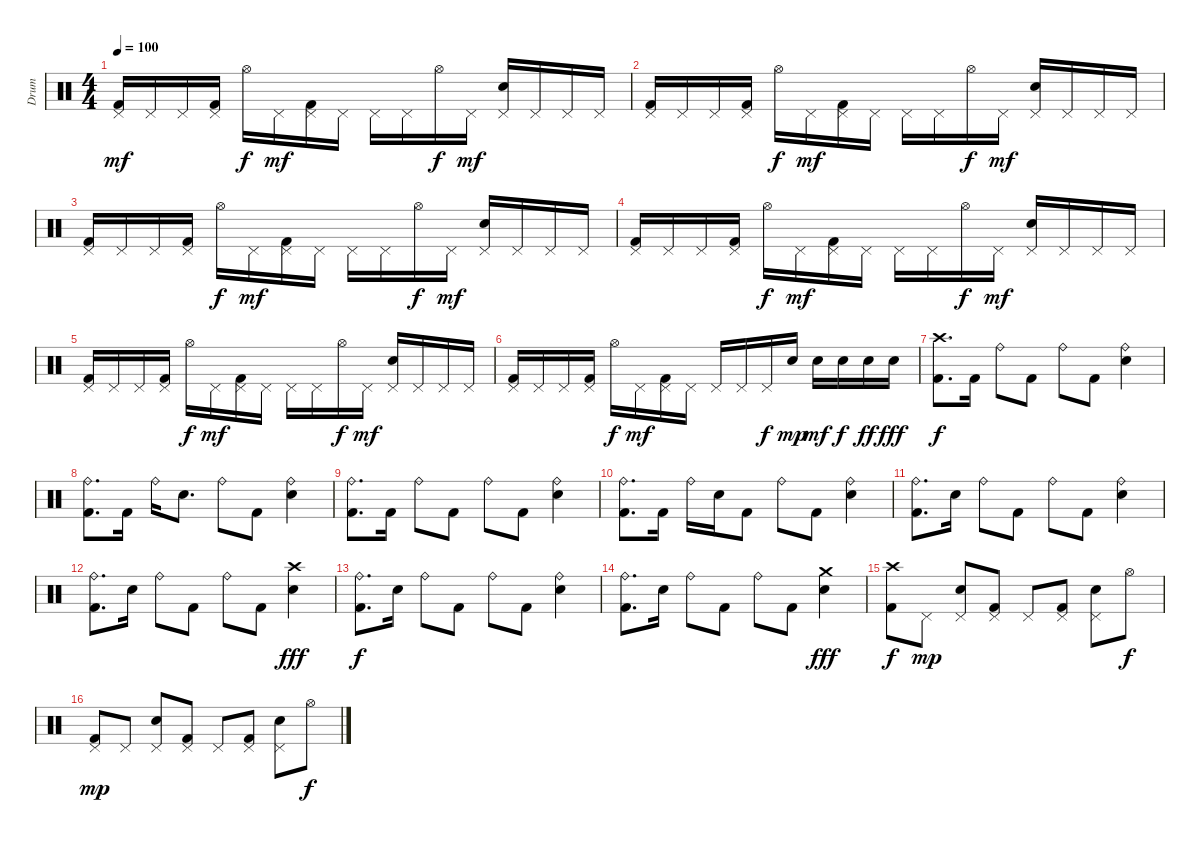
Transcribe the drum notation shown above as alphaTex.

\track ("Drum" "Drum") {instrument percussion}
\staff {score}
\articulation defaults
\ts (4 4)
\tempo 100
\clef neutral
\ks c
("Pedal Hi-Hat (hit)" "Kick (hit) 2").16{dy mf} "Pedal Hi-Hat (hit)".16 "Pedal Hi-Hat (hit)".16 ("Pedal Hi-Hat (hit)" "Kick (hit) 2").16 "Hi-Hat (open)".16{dy f} "Pedal Hi-Hat (hit)".16{dy mf} ("Pedal Hi-Hat (hit)" "Kick (hit) 2").16 "Pedal Hi-Hat (hit)".16 "Pedal Hi-Hat (hit)".16 "Pedal Hi-Hat (hit)".16 "Hi-Hat (open)".16{dy f} "Pedal Hi-Hat (hit)".16{dy mf} ("Pedal Hi-Hat (hit)" "Electric Snare (hit)").16 "Pedal Hi-Hat (hit)".16 "Pedal Hi-Hat (hit)".16 "Pedal Hi-Hat (hit)".16 |
("Pedal Hi-Hat (hit)" "Kick (hit) 2").16 "Pedal Hi-Hat (hit)".16 "Pedal Hi-Hat (hit)".16 ("Pedal Hi-Hat (hit)" "Kick (hit) 2").16 "Hi-Hat (open)".16{dy f} "Pedal Hi-Hat (hit)".16{dy mf} ("Pedal Hi-Hat (hit)" "Kick (hit) 2").16 "Pedal Hi-Hat (hit)".16 "Pedal Hi-Hat (hit)".16 "Pedal Hi-Hat (hit)".16 "Hi-Hat (open)".16{dy f} "Pedal Hi-Hat (hit)".16{dy mf} ("Pedal Hi-Hat (hit)" "Electric Snare (hit)").16 "Pedal Hi-Hat (hit)".16 "Pedal Hi-Hat (hit)".16 "Pedal Hi-Hat (hit)".16 |
("Pedal Hi-Hat (hit)" "Kick (hit) 2").16 "Pedal Hi-Hat (hit)".16 "Pedal Hi-Hat (hit)".16 ("Pedal Hi-Hat (hit)" "Kick (hit) 2").16 "Hi-Hat (open)".16{dy f} "Pedal Hi-Hat (hit)".16{dy mf} ("Pedal Hi-Hat (hit)" "Kick (hit) 2").16 "Pedal Hi-Hat (hit)".16 "Pedal Hi-Hat (hit)".16 "Pedal Hi-Hat (hit)".16 "Hi-Hat (open)".16{dy f} "Pedal Hi-Hat (hit)".16{dy mf} ("Pedal Hi-Hat (hit)" "Electric Snare (hit)").16 "Pedal Hi-Hat (hit)".16 "Pedal Hi-Hat (hit)".16 "Pedal Hi-Hat (hit)".16 |
("Pedal Hi-Hat (hit)" "Kick (hit) 2").16 "Pedal Hi-Hat (hit)".16 "Pedal Hi-Hat (hit)".16 ("Pedal Hi-Hat (hit)" "Kick (hit) 2").16 "Hi-Hat (open)".16{dy f} "Pedal Hi-Hat (hit)".16{dy mf} ("Pedal Hi-Hat (hit)" "Kick (hit) 2").16 "Pedal Hi-Hat (hit)".16 "Pedal Hi-Hat (hit)".16 "Pedal Hi-Hat (hit)".16 "Hi-Hat (open)".16{dy f} "Pedal Hi-Hat (hit)".16{dy mf} ("Pedal Hi-Hat (hit)" "Electric Snare (hit)").16 "Pedal Hi-Hat (hit)".16 "Pedal Hi-Hat (hit)".16 "Pedal Hi-Hat (hit)".16 |
("Pedal Hi-Hat (hit)" "Kick (hit) 2").16 "Pedal Hi-Hat (hit)".16 "Pedal Hi-Hat (hit)".16 ("Pedal Hi-Hat (hit)" "Kick (hit) 2").16 "Hi-Hat (open)".16{dy f} "Pedal Hi-Hat (hit)".16{dy mf} ("Pedal Hi-Hat (hit)" "Kick (hit) 2").16 "Pedal Hi-Hat (hit)".16 "Pedal Hi-Hat (hit)".16 "Pedal Hi-Hat (hit)".16 "Hi-Hat (open)".16{dy f} "Pedal Hi-Hat (hit)".16{dy mf} ("Pedal Hi-Hat (hit)" "Electric Snare (hit)").16 "Pedal Hi-Hat (hit)".16 "Pedal Hi-Hat (hit)".16 "Pedal Hi-Hat (hit)".16 |
("Pedal Hi-Hat (hit)" "Kick (hit) 2").16 "Pedal Hi-Hat (hit)".16 "Pedal Hi-Hat (hit)".16 ("Pedal Hi-Hat (hit)" "Kick (hit) 2").16 "Hi-Hat (open)".16{dy f} "Pedal Hi-Hat (hit)".16{dy mf} ("Pedal Hi-Hat (hit)" "Kick (hit) 2").16 "Pedal Hi-Hat (hit)".16 "Pedal Hi-Hat (hit)".16 "Pedal Hi-Hat (hit)".16 "Pedal Hi-Hat (hit)".16{dy f} "Electric Snare (hit)".16{dy mp} "Electric Snare (hit)".16{dy mf} "Electric Snare (hit)".16{dy f} "Electric Snare (hit)".16{dy ff} "Electric Snare (hit)".16{dy fff} |
("Crash high (hit)" "Kick (hit) 2").8{d dy f} "Kick (hit) 2".16 "Ride (bell)".8 "Kick (hit) 2".8 "Ride (bell)".8 "Kick (hit) 2".8 ("Ride (bell)" "Electric Snare (hit)").4 |
("Ride (bell)" "Kick (hit) 2").8{d} "Kick (hit) 2".16 "Ride (bell)".16 "Electric Snare (hit)".8{d} "Ride (bell)".8 "Kick (hit) 2".8 ("Ride (bell)" "Electric Snare (hit)").4 |
("Ride (bell)" "Kick (hit) 2").8{d} "Kick (hit) 2".16 "Ride (bell)".8 "Kick (hit) 2".8 "Ride (bell)".8 "Kick (hit) 2".8 ("Ride (bell)" "Electric Snare (hit)").4 |
("Ride (bell)" "Kick (hit) 2").8{d} "Kick (hit) 2".16 "Ride (bell)".16 "Electric Snare (hit)".16 "Kick (hit) 2".8 "Ride (bell)".8 "Kick (hit) 2".8 ("Ride (bell)" "Electric Snare (hit)").4 |
("Ride (bell)" "Kick (hit) 2").8{d} "Electric Snare (hit)".16 "Ride (bell)".8 "Kick (hit) 2".8 "Ride (bell)".8 "Kick (hit) 2".8 ("Ride (bell)" "Electric Snare (hit)").4 |
("Ride (bell)" "Kick (hit) 2").8{d} "Electric Snare (hit)".16 "Ride (bell)".8 "Kick (hit) 2".8 "Ride (bell)".8 "Kick (hit) 2".8 ("Crash high (hit)" "Electric Snare (hit)").4{dy fff} |
("Ride (bell)" "Kick (hit) 2").8{d dy f} "Electric Snare (hit)".16 "Ride (bell)".8 "Kick (hit) 2".8 "Ride (bell)".8 "Kick (hit) 2".8 ("Ride (bell)" "Electric Snare (hit)").4 |
("Ride (bell)" "Kick (hit) 2").8{d} "Electric Snare (hit)".16 "Ride (bell)".8 "Kick (hit) 2".8 "Ride (bell)".8 "Kick (hit) 2".8 ("Crash medium (hit)" "Electric Snare (hit)").4{dy fff} |
("Crash high (hit)" "Kick (hit) 2").8{dy f} "Pedal Hi-Hat (hit)".8{dy mp} ("Pedal Hi-Hat (hit)" "Electric Snare (hit)").8 ("Pedal Hi-Hat (hit)" "Kick (hit) 2").8 "Pedal Hi-Hat (hit)".8 ("Pedal Hi-Hat (hit)" "Kick (hit) 2").8 ("Pedal Hi-Hat (hit)" "Electric Snare (hit)").8 "Hi-Hat (open)".8{dy f} |
("Pedal Hi-Hat (hit)" "Kick (hit) 2").8{dy mp} "Pedal Hi-Hat (hit)".8 ("Pedal Hi-Hat (hit)" "Electric Snare (hit)").8 ("Pedal Hi-Hat (hit)" "Kick (hit) 2").8 "Pedal Hi-Hat (hit)".8 ("Pedal Hi-Hat (hit)" "Kick (hit) 2").8 ("Pedal Hi-Hat (hit)" "Electric Snare (hit)").8 "Hi-Hat (open)".8{dy f}
